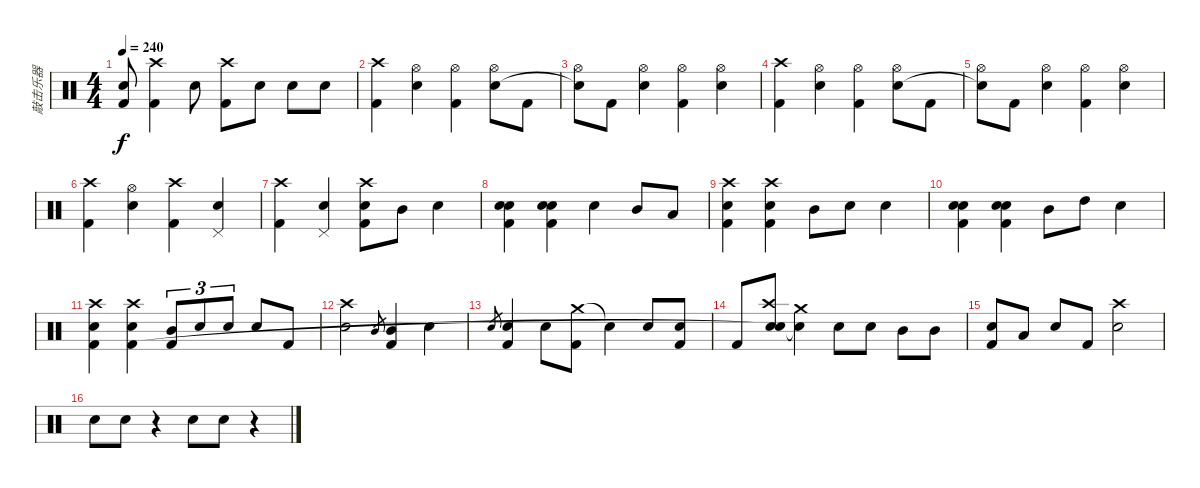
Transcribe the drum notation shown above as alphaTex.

\track ("敲击乐器" "敲击乐器") {instrument percussion}
\staff {score}
\articulation defaults
\ts (4 4)
\tempo 240
\clef neutral
\ks c
("Electric Snare (hit)" "Kick (hit) 2"{t}).8{dy f} ("Crash high (hit)" "Kick (hit) 2").4 "Electric Snare (hit)".8 ("Crash high (hit)" "Kick (hit) 2").8 "Electric Snare (hit)".8 "Electric Snare (hit)".8 "Electric Snare (hit)".8 |
("Crash high (hit)" "Kick (hit) 2").4 ("Hi-Hat (open)" "Electric Snare (hit)").4 ("Hi-Hat (open)" "Kick (hit) 2").4 ("Hi-Hat (open)" "Electric Snare (hit)").8 "Kick (hit) 2".8 |
("Hi-Hat (open)" "Snare (hit)"{t}).8 "Kick (hit) 2".8 ("Hi-Hat (open)" "Electric Snare (hit)").4 ("Hi-Hat (open)" "Kick (hit) 2").4 ("Hi-Hat (open)" "Electric Snare (hit)").4 |
("Crash high (hit)" "Kick (hit) 2").4 ("Hi-Hat (open)" "Electric Snare (hit)").4 ("Hi-Hat (open)" "Kick (hit) 2").4 ("Hi-Hat (open)" "Electric Snare (hit)").8 "Kick (hit) 2".8 |
("Hi-Hat (open)" "Snare (hit)"{t}).8 "Kick (hit) 2".8 ("Hi-Hat (open)" "Electric Snare (hit)").4 ("Hi-Hat (open)" "Kick (hit) 2").4 ("Hi-Hat (open)" "Electric Snare (hit)").4 |
("Crash high (hit)" "Kick (hit) 2").4 ("Hi-Hat (open)" "Electric Snare (hit)").4 ("Crash high (hit)" "Kick (hit) 2").4 ("Pedal Hi-Hat (hit)" "Electric Snare (hit)").4 |
("Crash high (hit)" "Kick (hit) 2").4 ("Pedal Hi-Hat (hit)" "Electric Snare (hit)").4 ("Crash high (hit)" "Electric Snare (hit)" "Kick (hit) 2").8 "Mid Tom (hit)".8 "Snare (hit) 2".4 |
("Electric Snare (hit)" "Snare (hit) 2" "Kick (hit) 2").4 ("Electric Snare (hit)" "Snare (hit) 2" "Kick (hit) 2").4 "Electric Snare (hit)".4 "Mid Tom (hit)".8 "Low Tom (hit)".8 |
("Crash high (hit)" "Electric Snare (hit)" "Kick (hit) 2").4 ("Crash high (hit)" "Electric Snare (hit)" "Kick (hit) 2").4 "Mid Tom (hit)".8 "Electric Snare (hit)".8 "Electric Snare (hit)".4 |
("Electric Snare (hit)" "Snare (hit) 2" "Kick (hit) 2").4 ("Electric Snare (hit)" "Snare (hit) 2" "Kick (hit) 2").4 "Mid Tom (hit)".8 "High Tom (hit)".8 "Snare (hit) 2".4 |
("Crash high (hit)" "Electric Snare (hit)" "Kick (hit) 2").4 ("Crash high (hit)" "Electric Snare (hit)" "Kick (hit) 2").4 ("Mid Tom (hit)" "Kick (hit) 2").8{tu (3 2)} "Electric Snare (hit)".8{tu (3 2)} "Electric Snare (hit)".8{tu (3 2)} "Electric Snare (hit)".8 "Kick (hit) 2".8 |
("Crash high (hit)" "Electric Snare (hit)").2 "Mid Tom (hit)".8{gr} ("Mid Tom (hit)" "Kick (hit) 2").4 "Snare (hit) 2".4 |
"Electric Snare (hit)".8{gr} ("Electric Snare (hit)" "Kick (hit) 2").4 "Electric Snare (hit)".8 ("Crash medium (hit)" "Kick (hit) 2").8 "Snare (hit)"{t}.4 "Electric Snare (hit)".8 ("Electric Snare (hit)" "Kick (hit) 2").8 |
"Kick (hit) 2".8 ("Crash high (hit)" "Electric Snare (hit)" "Snare (hit)"{t}).8 ("Crash medium (hit)" "Snare (hit)"{t}).4 "Electric Snare (hit)".8 "Electric Snare (hit)".8 "Mid Tom (hit)".8 "Mid Tom (hit)".8 |
("Snare (hit) 2" "Kick (hit) 2").8 "Low Tom (hit)".8 "Snare (hit) 2".8 "Kick (hit) 2".8 ("Crash high (hit)" "Electric Snare (hit)").2 |
"Electric Snare (hit)".8 "Electric Snare (hit)".8 r.4 "Electric Snare (hit)".8 "Electric Snare (hit)".8 r.4
